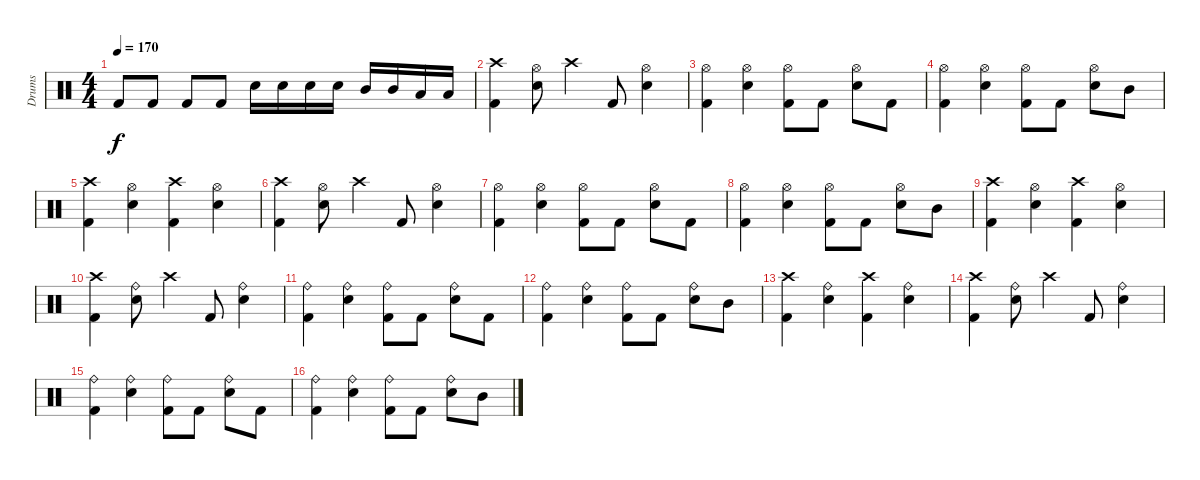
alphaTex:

\track ("Drums" "Drums") {instrument percussion}
\staff {score}
\articulation defaults
\ts (4 4)
\tempo 170
\clef neutral
\ks c "Kick (hit) 2".8{dy f} "Kick (hit) 2".8 "Kick (hit) 2".8 "Kick (hit) 2".8 "Snare (hit) 2".16 "Snare (hit) 2".16 "Snare (hit) 2".16 "Snare (hit) 2".16 "Mid Tom (hit)".16 "Mid Tom (hit)".16 "Low Tom (hit)".16 "Low Tom (hit)".16
|
("Crash high (hit)" "Kick (hit) 2").4 ("Hi-Hat (open)" "Snare (hit) 2").8 "Crash high (hit)".4 "Kick (hit) 2".8 ("Hi-Hat (open)" "Snare (hit) 2").4 |
("Hi-Hat (open)" "Kick (hit) 2").4 ("Hi-Hat (open)" "Snare (hit) 2").4 ("Hi-Hat (open)" "Kick (hit) 2").8 "Kick (hit) 2".8 ("Hi-Hat (open)" "Snare (hit) 2").8 "Kick (hit) 2".8 |
("Hi-Hat (open)" "Kick (hit) 2").4 ("Hi-Hat (open)" "Snare (hit) 2").4 ("Hi-Hat (open)" "Kick (hit) 2").8 "Kick (hit) 2".8 ("Hi-Hat (open)" "Snare (hit) 2").8 "Mid Tom (hit)".8 |
("Crash high (hit)" "Kick (hit) 2").4 ("Hi-Hat (open)" "Snare (hit) 2").4 ("Crash high (hit)" "Kick (hit) 2").4 ("Hi-Hat (open)" "Snare (hit) 2").4 |
("Crash high (hit)" "Kick (hit) 2").4 ("Hi-Hat (open)" "Snare (hit) 2").8 "Crash high (hit)".4 "Kick (hit) 2".8 ("Hi-Hat (open)" "Snare (hit) 2").4 |
("Hi-Hat (open)" "Kick (hit) 2").4 ("Hi-Hat (open)" "Snare (hit) 2").4 ("Hi-Hat (open)" "Kick (hit) 2").8 "Kick (hit) 2".8 ("Hi-Hat (open)" "Snare (hit) 2").8 "Kick (hit) 2".8 |
("Hi-Hat (open)" "Kick (hit) 2").4 ("Hi-Hat (open)" "Snare (hit) 2").4 ("Hi-Hat (open)" "Kick (hit) 2").8 "Kick (hit) 2".8 ("Hi-Hat (open)" "Snare (hit) 2").8 "Mid Tom (hit)".8 |
("Crash high (hit)" "Kick (hit) 2").4 ("Hi-Hat (open)" "Snare (hit) 2").4 ("Crash high (hit)" "Kick (hit) 2").4 ("Hi-Hat (open)" "Snare (hit) 2").4 |
("Crash high (hit)" "Kick (hit) 2").4 ("Ride (bell)" "Snare (hit) 2").8 "Crash high (hit)".4 "Kick (hit) 2".8 ("Ride (bell)" "Snare (hit) 2").4 |
("Ride (bell)" "Kick (hit) 2").4 ("Ride (bell)" "Snare (hit) 2").4 ("Ride (bell)" "Kick (hit) 2").8 "Kick (hit) 2".8 ("Ride (bell)" "Snare (hit) 2").8 "Kick (hit) 2".8 |
("Ride (bell)" "Kick (hit) 2").4 ("Ride (bell)" "Snare (hit) 2").4 ("Ride (bell)" "Kick (hit) 2").8 "Kick (hit) 2".8 ("Ride (bell)" "Snare (hit) 2").8 "Mid Tom (hit)".8 |
("Crash high (hit)" "Kick (hit) 2").4 ("Ride (bell)" "Snare (hit) 2").4 ("Crash high (hit)" "Kick (hit) 2").4 ("Ride (bell)" "Snare (hit) 2").4 |
("Crash high (hit)" "Kick (hit) 2").4 ("Ride (bell)" "Snare (hit) 2").8 "Crash high (hit)".4 "Kick (hit) 2".8 ("Ride (bell)" "Snare (hit) 2").4 |
("Ride (bell)" "Kick (hit) 2").4 ("Ride (bell)" "Snare (hit) 2").4 ("Ride (bell)" "Kick (hit) 2").8 "Kick (hit) 2".8 ("Ride (bell)" "Snare (hit) 2").8 "Kick (hit) 2".8 |
("Ride (bell)" "Kick (hit) 2").4 ("Ride (bell)" "Snare (hit) 2").4 ("Ride (bell)" "Kick (hit) 2").8 "Kick (hit) 2".8 ("Ride (bell)" "Snare (hit) 2").8 "Mid Tom (hit)".8
